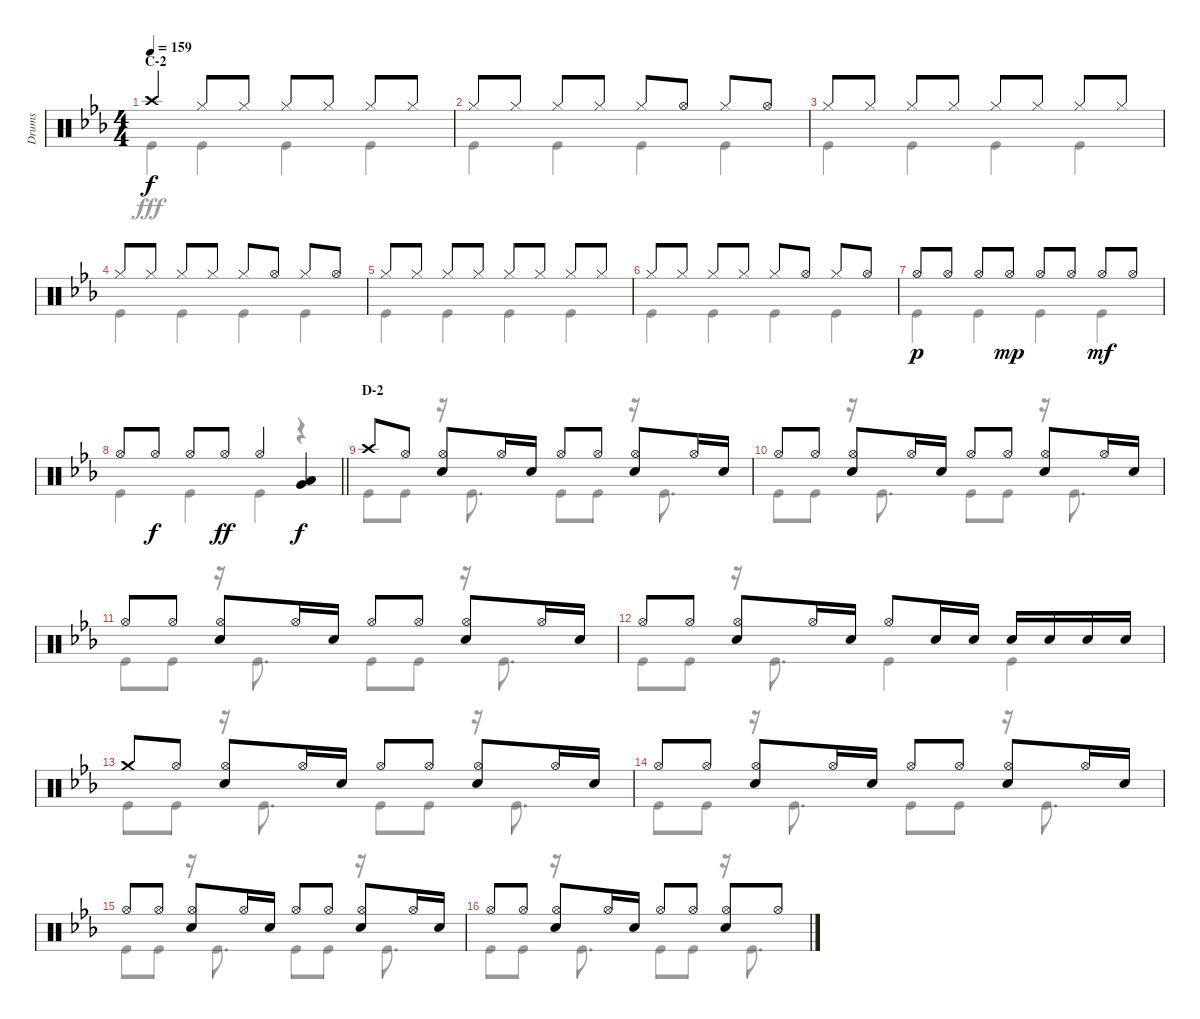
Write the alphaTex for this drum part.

\track ("Drums" "Drums") {instrument percussion}
\staff {score}
\articulation defaults
\voice
\ts (4 4)
\section ("" "C-2")
\tempo 159
\clef neutral
\ks eb "Crash high (hit)".4{dy f} "Hi-Hat (closed)".8 "Hi-Hat (closed)".8 "Hi-Hat (closed)".8 "Hi-Hat (closed)".8 "Hi-Hat (closed)".8 "Hi-Hat (closed)".8
|
"Hi-Hat (closed)".8 "Hi-Hat (closed)".8 "Hi-Hat (closed)".8 "Hi-Hat (closed)".8 "Hi-Hat (closed)".8 "Hi-Hat (open)".8 "Hi-Hat (closed)".8 "Hi-Hat (open)".8 |
"Hi-Hat (closed)".8 "Hi-Hat (closed)".8 "Hi-Hat (closed)".8 "Hi-Hat (closed)".8 "Hi-Hat (closed)".8 "Hi-Hat (closed)".8 "Hi-Hat (closed)".8 "Hi-Hat (closed)".8 |
"Hi-Hat (closed)".8 "Hi-Hat (closed)".8 "Hi-Hat (closed)".8 "Hi-Hat (closed)".8 "Hi-Hat (closed)".8 "Hi-Hat (open)".8 "Hi-Hat (closed)".8 "Hi-Hat (open)".8 |
"Hi-Hat (closed)".8 "Hi-Hat (closed)".8 "Hi-Hat (closed)".8 "Hi-Hat (closed)".8 "Hi-Hat (closed)".8 "Hi-Hat (closed)".8 "Hi-Hat (closed)".8 "Hi-Hat (closed)".8 |
"Hi-Hat (closed)".8 "Hi-Hat (closed)".8 "Hi-Hat (closed)".8 "Hi-Hat (closed)".8 "Hi-Hat (closed)".8 "Hi-Hat (open)".8 "Hi-Hat (closed)".8 "Hi-Hat (open)".8 |
"Hi-Hat (open)".8{dy p} "Hi-Hat (open)".8 "Hi-Hat (open)".8 "Hi-Hat (open)".8{dy mp} "Hi-Hat (open)".8 "Hi-Hat (open)".8 "Hi-Hat (open)".8{dy mf} "Hi-Hat (open)".8 |
\barLineRight lightlight "Hi-Hat (open)".8 "Hi-Hat (open)".8{dy f} "Hi-Hat (open)".8 "Hi-Hat (open)".8{dy ff} "Hi-Hat (open)".4
("Low Tom (hit)" "Very Low Tom (hit)").4{dy f} |
\section ("" "D-2")
"Crash high (hit)".8 "Hi-Hat (open)".8 ("Hi-Hat (open)" "Snare (hit) 2").8 "Hi-Hat (open)".16 "Snare (hit) 2".16 "Hi-Hat (open)".8 "Hi-Hat (open)".8 ("Hi-Hat (open)" "Snare (hit) 2").8 "Hi-Hat (open)".16 "Snare (hit) 2".16 |
"Hi-Hat (open)".8 "Hi-Hat (open)".8 ("Hi-Hat (open)" "Snare (hit) 2").8 "Hi-Hat (open)".16 "Snare (hit) 2".16 "Hi-Hat (open)".8 "Hi-Hat (open)".8 ("Hi-Hat (open)" "Snare (hit) 2").8 "Hi-Hat (open)".16 "Snare (hit) 2".16 |
"Hi-Hat (open)".8 "Hi-Hat (open)".8 ("Hi-Hat (open)" "Snare (hit) 2").8 "Hi-Hat (open)".16 "Snare (hit) 2".16 "Hi-Hat (open)".8 "Hi-Hat (open)".8 ("Hi-Hat (open)" "Snare (hit) 2").8 "Hi-Hat (open)".16 "Snare (hit) 2".16 |
"Hi-Hat (open)".8 "Hi-Hat (open)".8 ("Hi-Hat (open)" "Snare (hit) 2").8 "Hi-Hat (open)".16 "Snare (hit) 2".16 "Hi-Hat (open)".8 "Snare (hit) 2".16 "Snare (hit) 2".16 "Snare (hit) 2".16 "Snare (hit) 2".16 "Snare (hit) 2".16 "Snare (hit) 2".16 |
"Crash medium (hit)".8 "Hi-Hat (open)".8 ("Hi-Hat (open)" "Snare (hit) 2").8 "Hi-Hat (open)".16 "Snare (hit) 2".16 "Hi-Hat (open)".8 "Hi-Hat (open)".8 ("Hi-Hat (open)" "Snare (hit) 2").8 "Hi-Hat (open)".16 "Snare (hit) 2".16 |
"Hi-Hat (open)".8 "Hi-Hat (open)".8 ("Hi-Hat (open)" "Snare (hit) 2").8 "Hi-Hat (open)".16 "Snare (hit) 2".16 "Hi-Hat (open)".8 "Hi-Hat (open)".8 ("Hi-Hat (open)" "Snare (hit) 2").8 "Hi-Hat (open)".16 "Snare (hit) 2".16 |
"Hi-Hat (open)".8 "Hi-Hat (open)".8 ("Hi-Hat (open)" "Snare (hit) 2").8 "Hi-Hat (open)".16 "Snare (hit) 2".16 "Hi-Hat (open)".8 "Hi-Hat (open)".8 ("Hi-Hat (open)" "Snare (hit) 2").8 "Hi-Hat (open)".16 "Snare (hit) 2".16 |
"Hi-Hat (open)".8 "Hi-Hat (open)".8 ("Hi-Hat (open)" "Snare (hit) 2").8 "Hi-Hat (open)".16 "Snare (hit) 2".16 "Hi-Hat (open)".8 "Hi-Hat (open)".8 ("Hi-Hat (open)" "Snare (hit) 2").8 "Hi-Hat (open)".8
\voice
\clef neutral
\ottava regular
\simile none
\ks eb "Kick (hit)".4{dy fff} "Kick (hit)".4 "Kick (hit)".4 "Kick (hit)".4
|
"Kick (hit)".4 "Kick (hit)".4 "Kick (hit)".4 "Kick (hit)".4 |
"Kick (hit)".4 "Kick (hit)".4 "Kick (hit)".4 "Kick (hit)".4 |
"Kick (hit)".4 "Kick (hit)".4 "Kick (hit)".4 "Kick (hit)".4 |
"Kick (hit)".4 "Kick (hit)".4 "Kick (hit)".4 "Kick (hit)".4 |
"Kick (hit)".4 "Kick (hit)".4 "Kick (hit)".4 "Kick (hit)".4 |
"Kick (hit)".4 "Kick (hit)".4 "Kick (hit)".4 "Kick (hit)".4 |
\barLineRight lightlight "Kick (hit)".4 "Kick (hit)".4 "Kick (hit)".4
r.4 |
"Kick (hit)".8 "Kick (hit)".8 r.16 "Kick (hit)".8{d} "Kick (hit)".8 "Kick (hit)".8 r.16 "Kick (hit)".8{d} |
"Kick (hit)".8 "Kick (hit)".8 r.16 "Kick (hit)".8{d} "Kick (hit)".8 "Kick (hit)".8 r.16 "Kick (hit)".8{d} |
"Kick (hit)".8 "Kick (hit)".8 r.16 "Kick (hit)".8{d} "Kick (hit)".8 "Kick (hit)".8 r.16 "Kick (hit)".8{d} |
"Kick (hit)".8 "Kick (hit)".8 r.16 "Kick (hit)".8{d} "Kick (hit)".4 "Kick (hit)".4 |
"Kick (hit)".8 "Kick (hit)".8 r.16 "Kick (hit)".8{d} "Kick (hit)".8 "Kick (hit)".8 r.16 "Kick (hit)".8{d} |
"Kick (hit)".8 "Kick (hit)".8 r.16 "Kick (hit)".8{d} "Kick (hit)".8 "Kick (hit)".8 r.16 "Kick (hit)".8{d} |
"Kick (hit)".8 "Kick (hit)".8 r.16 "Kick (hit)".8{d} "Kick (hit)".8 "Kick (hit)".8 r.16 "Kick (hit)".8{d} |
"Kick (hit)".8 "Kick (hit)".8 r.16 "Kick (hit)".8{d} "Kick (hit)".8 "Kick (hit)".8 r.16 "Kick (hit)".8{d}
